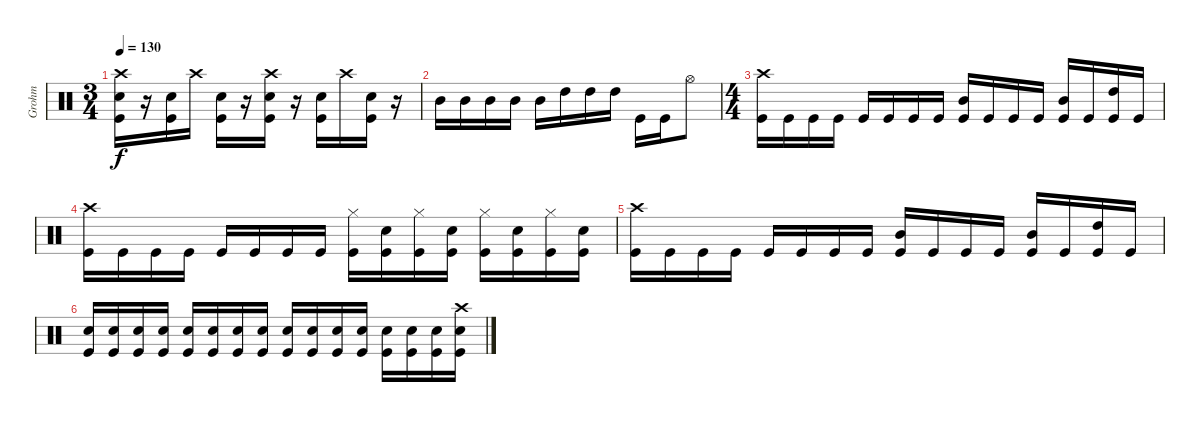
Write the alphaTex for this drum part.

\track ("Grohm" "Grohm") {instrument percussion}
\staff {score}
\articulation defaults
\ts (3 4)
\tempo 130
\clef neutral
\ks c
("Crash high (hit)" "Snare (hit) 2" "Kick (hit)").16{dy f} r.16 ("Snare (hit) 2" "Kick (hit)").16 "Crash high (hit)".16 ("Snare (hit) 2" "Kick (hit)").16 r.16 ("Crash high (hit)" "Snare (hit) 2" "Kick (hit)").16 r.16 ("Snare (hit) 2" "Kick (hit)").16 "Crash high (hit)".16 ("Snare (hit) 2" "Kick (hit)").16 r.16 |
"Mid Tom (hit)".16 "Mid Tom (hit)".16 "Mid Tom (hit)".16 "Mid Tom (hit)".16 "Mid Tom (hit)".16 "High Tom (hit)".16 "High Tom (hit)".16 "High Tom (hit)".16 "Kick (hit)".16 "Kick (hit)".16 "Hi-Hat (open)".8 |
\ts (4 4)
("Crash high (hit)" "Kick (hit)").16 "Kick (hit)".16 "Kick (hit)".16 "Kick (hit)".16 "Kick (hit)".16 "Kick (hit)".16 "Kick (hit)".16 "Kick (hit)".16 ("Mid Tom (hit)" "Kick (hit)").16 "Kick (hit)".16 "Kick (hit)".16 "Kick (hit)".16 ("Mid Tom (hit)" "Kick (hit)").16 "Kick (hit)".16 ("High Tom (hit)" "Kick (hit)").16 "Kick (hit)".16 |
("Crash high (hit)" "Kick (hit)").16 "Kick (hit)".16 "Kick (hit)".16 "Kick (hit)".16 "Kick (hit)".16 "Kick (hit)".16 "Kick (hit)".16 "Kick (hit)".16 ("Hi-Hat (closed)" "Kick (hit)").16 ("Snare (hit) 2" "Kick (hit)").16 ("Hi-Hat (closed)" "Kick (hit)").16 ("Snare (hit) 2" "Kick (hit)").16 ("Hi-Hat (closed)" "Kick (hit)").16 ("Snare (hit) 2" "Kick (hit)").16 ("Hi-Hat (closed)" "Kick (hit)").16 ("Snare (hit) 2" "Kick (hit)").16 |
("Crash high (hit)" "Kick (hit)").16 "Kick (hit)".16 "Kick (hit)".16 "Kick (hit)".16 "Kick (hit)".16 "Kick (hit)".16 "Kick (hit)".16 "Kick (hit)".16 ("Mid Tom (hit)" "Kick (hit)").16 "Kick (hit)".16 "Kick (hit)".16 "Kick (hit)".16 ("Mid Tom (hit)" "Kick (hit)").16 "Kick (hit)".16 ("High Tom (hit)" "Kick (hit)").16 "Kick (hit)".16 |
("Snare (hit) 2" "Kick (hit)").16 ("Snare (hit) 2" "Kick (hit)").16 ("Snare (hit) 2" "Kick (hit)").16 ("Snare (hit) 2" "Kick (hit)").16 ("Snare (hit) 2" "Kick (hit)").16 ("Snare (hit) 2" "Kick (hit)").16 ("Snare (hit) 2" "Kick (hit)").16 ("Snare (hit) 2" "Kick (hit)").16 ("Snare (hit) 2" "Kick (hit)").16 ("Snare (hit) 2" "Kick (hit)").16 ("Snare (hit) 2" "Kick (hit)").16 ("Snare (hit) 2" "Kick (hit)").16 ("Snare (hit) 2" "Kick (hit)").16 ("Snare (hit) 2" "Kick (hit)").16 ("Snare (hit) 2" "Kick (hit)").16 ("Crash high (hit)" "Snare (hit) 2" "Kick (hit)").16
